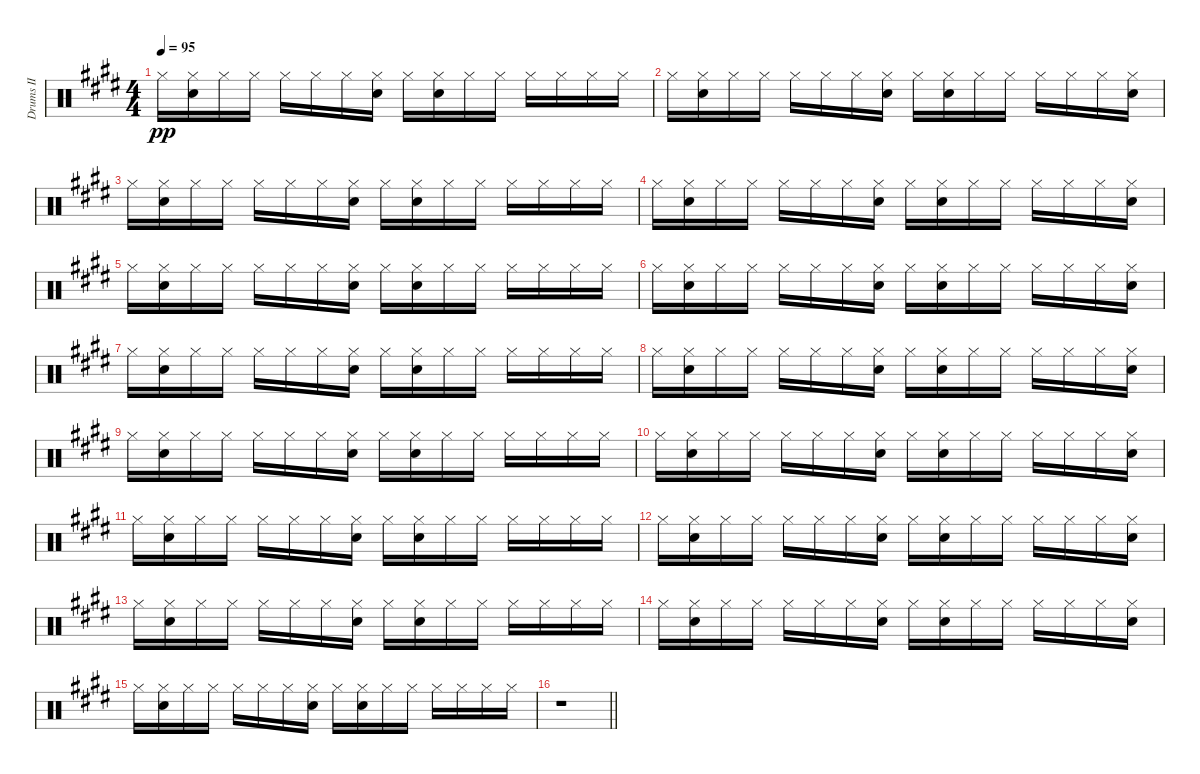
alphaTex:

\track ("Drums II" "Drums II") {instrument percussion}
\staff {score}
\articulation defaults
\ts (4 4)
\tempo 95
\clef neutral
\ks e "Hi-Hat (closed)".16{dy pp}
("Hi-Hat (closed)" "Snare (hit) 2").16 "Hi-Hat (closed)".16 "Hi-Hat (closed)".16 "Hi-Hat (closed)".16 "Hi-Hat (closed)".16 "Hi-Hat (closed)".16 ("Hi-Hat (closed)" "Snare (hit) 2").16 "Hi-Hat (closed)".16 ("Hi-Hat (closed)" "Snare (hit) 2").16 "Hi-Hat (closed)".16 "Hi-Hat (closed)".16 "Hi-Hat (closed)".16 "Hi-Hat (closed)".16 "Hi-Hat (closed)".16 "Hi-Hat (closed)".16 |
"Hi-Hat (closed)".16 ("Hi-Hat (closed)" "Snare (hit) 2").16 "Hi-Hat (closed)".16 "Hi-Hat (closed)".16 "Hi-Hat (closed)".16 "Hi-Hat (closed)".16 "Hi-Hat (closed)".16 ("Hi-Hat (closed)" "Snare (hit) 2").16 "Hi-Hat (closed)".16 ("Hi-Hat (closed)" "Snare (hit) 2").16 "Hi-Hat (closed)".16 "Hi-Hat (closed)".16 "Hi-Hat (closed)".16 "Hi-Hat (closed)".16 "Hi-Hat (closed)".16 ("Hi-Hat (closed)" "Snare (hit) 2").16 |
"Hi-Hat (closed)".16 ("Hi-Hat (closed)" "Snare (hit) 2").16 "Hi-Hat (closed)".16 "Hi-Hat (closed)".16 "Hi-Hat (closed)".16 "Hi-Hat (closed)".16 "Hi-Hat (closed)".16 ("Hi-Hat (closed)" "Snare (hit) 2").16 "Hi-Hat (closed)".16 ("Hi-Hat (closed)" "Snare (hit) 2").16 "Hi-Hat (closed)".16 "Hi-Hat (closed)".16 "Hi-Hat (closed)".16 "Hi-Hat (closed)".16 "Hi-Hat (closed)".16 "Hi-Hat (closed)".16 |
"Hi-Hat (closed)".16 ("Hi-Hat (closed)" "Snare (hit) 2").16 "Hi-Hat (closed)".16 "Hi-Hat (closed)".16 "Hi-Hat (closed)".16 "Hi-Hat (closed)".16 "Hi-Hat (closed)".16 ("Hi-Hat (closed)" "Snare (hit) 2").16 "Hi-Hat (closed)".16 ("Hi-Hat (closed)" "Snare (hit) 2").16 "Hi-Hat (closed)".16 "Hi-Hat (closed)".16 "Hi-Hat (closed)".16 "Hi-Hat (closed)".16 "Hi-Hat (closed)".16 ("Hi-Hat (closed)" "Snare (hit) 2").16 |
"Hi-Hat (closed)".16 ("Hi-Hat (closed)" "Snare (hit) 2").16 "Hi-Hat (closed)".16 "Hi-Hat (closed)".16 "Hi-Hat (closed)".16 "Hi-Hat (closed)".16 "Hi-Hat (closed)".16 ("Hi-Hat (closed)" "Snare (hit) 2").16 "Hi-Hat (closed)".16 ("Hi-Hat (closed)" "Snare (hit) 2").16 "Hi-Hat (closed)".16 "Hi-Hat (closed)".16 "Hi-Hat (closed)".16 "Hi-Hat (closed)".16 "Hi-Hat (closed)".16 "Hi-Hat (closed)".16 |
"Hi-Hat (closed)".16 ("Hi-Hat (closed)" "Snare (hit) 2").16 "Hi-Hat (closed)".16 "Hi-Hat (closed)".16 "Hi-Hat (closed)".16 "Hi-Hat (closed)".16 "Hi-Hat (closed)".16 ("Hi-Hat (closed)" "Snare (hit) 2").16 "Hi-Hat (closed)".16 ("Hi-Hat (closed)" "Snare (hit) 2").16 "Hi-Hat (closed)".16 "Hi-Hat (closed)".16 "Hi-Hat (closed)".16 "Hi-Hat (closed)".16 "Hi-Hat (closed)".16 ("Hi-Hat (closed)" "Snare (hit) 2").16 |
"Hi-Hat (closed)".16 ("Hi-Hat (closed)" "Snare (hit) 2").16 "Hi-Hat (closed)".16 "Hi-Hat (closed)".16 "Hi-Hat (closed)".16 "Hi-Hat (closed)".16 "Hi-Hat (closed)".16 ("Hi-Hat (closed)" "Snare (hit) 2").16 "Hi-Hat (closed)".16 ("Hi-Hat (closed)" "Snare (hit) 2").16 "Hi-Hat (closed)".16 "Hi-Hat (closed)".16 "Hi-Hat (closed)".16 "Hi-Hat (closed)".16 "Hi-Hat (closed)".16 "Hi-Hat (closed)".16 |
"Hi-Hat (closed)".16 ("Hi-Hat (closed)" "Snare (hit) 2").16 "Hi-Hat (closed)".16 "Hi-Hat (closed)".16 "Hi-Hat (closed)".16 "Hi-Hat (closed)".16 "Hi-Hat (closed)".16 ("Hi-Hat (closed)" "Snare (hit) 2").16 "Hi-Hat (closed)".16 ("Hi-Hat (closed)" "Snare (hit) 2").16 "Hi-Hat (closed)".16 "Hi-Hat (closed)".16 "Hi-Hat (closed)".16 "Hi-Hat (closed)".16 "Hi-Hat (closed)".16 ("Hi-Hat (closed)" "Snare (hit) 2").16 |
"Hi-Hat (closed)".16 ("Hi-Hat (closed)" "Snare (hit) 2").16 "Hi-Hat (closed)".16 "Hi-Hat (closed)".16 "Hi-Hat (closed)".16 "Hi-Hat (closed)".16 "Hi-Hat (closed)".16 ("Hi-Hat (closed)" "Snare (hit) 2").16 "Hi-Hat (closed)".16 ("Hi-Hat (closed)" "Snare (hit) 2").16 "Hi-Hat (closed)".16 "Hi-Hat (closed)".16 "Hi-Hat (closed)".16 "Hi-Hat (closed)".16 "Hi-Hat (closed)".16 "Hi-Hat (closed)".16 |
"Hi-Hat (closed)".16 ("Hi-Hat (closed)" "Snare (hit) 2").16 "Hi-Hat (closed)".16 "Hi-Hat (closed)".16 "Hi-Hat (closed)".16 "Hi-Hat (closed)".16 "Hi-Hat (closed)".16 ("Hi-Hat (closed)" "Snare (hit) 2").16 "Hi-Hat (closed)".16 ("Hi-Hat (closed)" "Snare (hit) 2").16 "Hi-Hat (closed)".16 "Hi-Hat (closed)".16 "Hi-Hat (closed)".16 "Hi-Hat (closed)".16 "Hi-Hat (closed)".16 ("Hi-Hat (closed)" "Snare (hit) 2").16 |
"Hi-Hat (closed)".16 ("Hi-Hat (closed)" "Snare (hit) 2").16 "Hi-Hat (closed)".16 "Hi-Hat (closed)".16 "Hi-Hat (closed)".16 "Hi-Hat (closed)".16 "Hi-Hat (closed)".16 ("Hi-Hat (closed)" "Snare (hit) 2").16 "Hi-Hat (closed)".16 ("Hi-Hat (closed)" "Snare (hit) 2").16 "Hi-Hat (closed)".16 "Hi-Hat (closed)".16 "Hi-Hat (closed)".16 "Hi-Hat (closed)".16 "Hi-Hat (closed)".16 "Hi-Hat (closed)".16 |
"Hi-Hat (closed)".16 ("Hi-Hat (closed)" "Snare (hit) 2").16 "Hi-Hat (closed)".16 "Hi-Hat (closed)".16 "Hi-Hat (closed)".16 "Hi-Hat (closed)".16 "Hi-Hat (closed)".16 ("Hi-Hat (closed)" "Snare (hit) 2").16 "Hi-Hat (closed)".16 ("Hi-Hat (closed)" "Snare (hit) 2").16 "Hi-Hat (closed)".16 "Hi-Hat (closed)".16 "Hi-Hat (closed)".16 "Hi-Hat (closed)".16 "Hi-Hat (closed)".16 ("Hi-Hat (closed)" "Snare (hit) 2").16 |
"Hi-Hat (closed)".16 ("Hi-Hat (closed)" "Snare (hit) 2").16 "Hi-Hat (closed)".16 "Hi-Hat (closed)".16 "Hi-Hat (closed)".16 "Hi-Hat (closed)".16 "Hi-Hat (closed)".16 ("Hi-Hat (closed)" "Snare (hit) 2").16 "Hi-Hat (closed)".16 ("Hi-Hat (closed)" "Snare (hit) 2").16 "Hi-Hat (closed)".16 "Hi-Hat (closed)".16 "Hi-Hat (closed)".16 "Hi-Hat (closed)".16 "Hi-Hat (closed)".16 "Hi-Hat (closed)".16 |
"Hi-Hat (closed)".16 ("Hi-Hat (closed)" "Snare (hit) 2").16 "Hi-Hat (closed)".16 "Hi-Hat (closed)".16 "Hi-Hat (closed)".16 "Hi-Hat (closed)".16 "Hi-Hat (closed)".16 ("Hi-Hat (closed)" "Snare (hit) 2").16 "Hi-Hat (closed)".16 ("Hi-Hat (closed)" "Snare (hit) 2").16 "Hi-Hat (closed)".16 "Hi-Hat (closed)".16 "Hi-Hat (closed)".16 "Hi-Hat (closed)".16 "Hi-Hat (closed)".16 ("Hi-Hat (closed)" "Snare (hit) 2").16 |
"Hi-Hat (closed)".16 ("Hi-Hat (closed)" "Snare (hit) 2").16 "Hi-Hat (closed)".16 "Hi-Hat (closed)".16 "Hi-Hat (closed)".16 "Hi-Hat (closed)".16 "Hi-Hat (closed)".16 ("Hi-Hat (closed)" "Snare (hit) 2").16 "Hi-Hat (closed)".16 ("Hi-Hat (closed)" "Snare (hit) 2").16 "Hi-Hat (closed)".16 "Hi-Hat (closed)".16 "Hi-Hat (closed)".16 "Hi-Hat (closed)".16 "Hi-Hat (closed)".16 "Hi-Hat (closed)".16 |
\barLineRight lightlight
r.1
